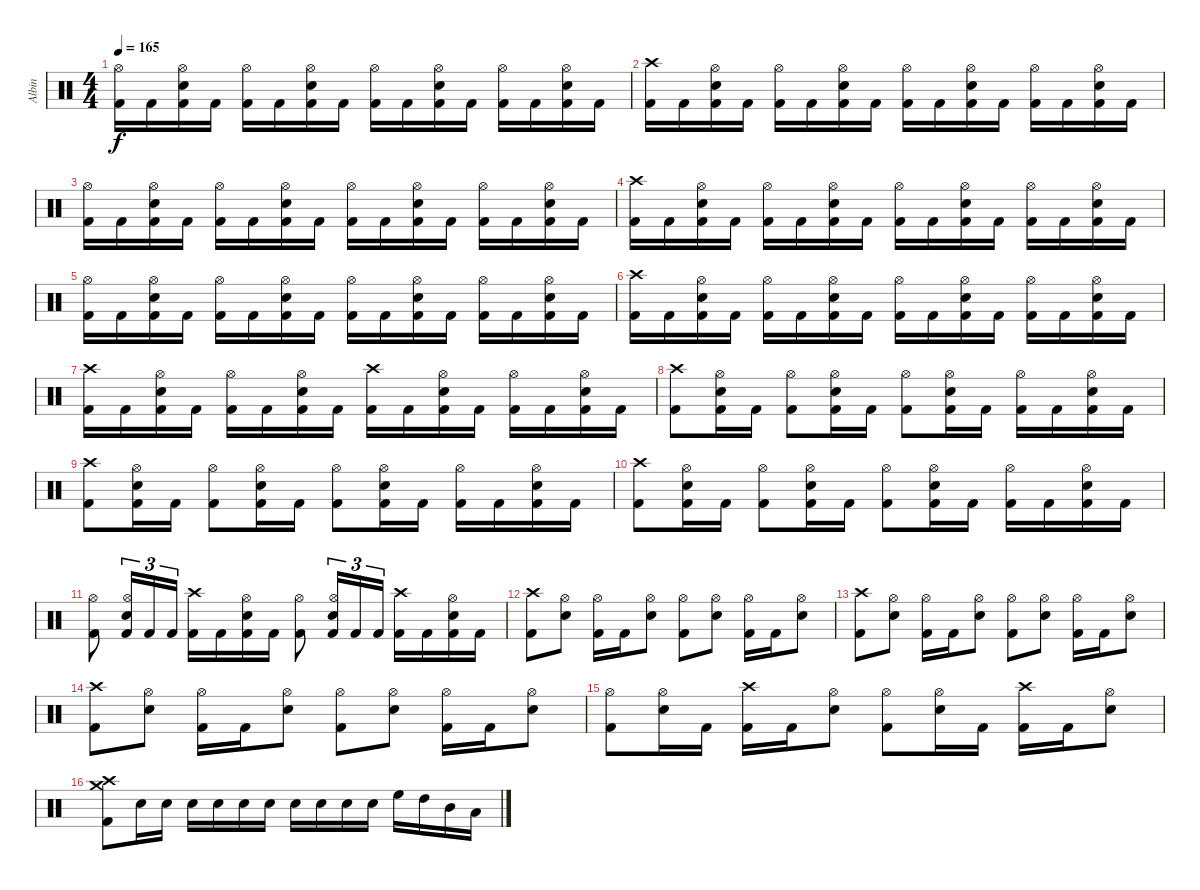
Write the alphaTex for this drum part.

\track ("Albin" "Albin") {instrument percussion}
\staff {score}
\articulation defaults
\ts (4 4)
\tempo 165
\clef neutral
\ks c
("Kick (hit) 2" "Hi-Hat (open)").16{dy f} "Kick (hit) 2".16 ("Kick (hit) 2" "Electric Snare (hit)" "Hi-Hat (open)").16 "Kick (hit) 2".16 ("Kick (hit) 2" "Hi-Hat (open)").16 "Kick (hit) 2".16 ("Kick (hit) 2" "Electric Snare (hit)" "Hi-Hat (open)").16 "Kick (hit) 2".16 ("Kick (hit) 2" "Hi-Hat (open)").16 "Kick (hit) 2".16 ("Kick (hit) 2" "Electric Snare (hit)" "Hi-Hat (open)").16 "Kick (hit) 2".16 ("Kick (hit) 2" "Hi-Hat (open)").16 "Kick (hit) 2".16 ("Kick (hit) 2" "Electric Snare (hit)" "Hi-Hat (open)").16 "Kick (hit) 2".16 |
("Kick (hit) 2" "Crash high (hit)").16 "Kick (hit) 2".16 ("Kick (hit) 2" "Electric Snare (hit)" "Hi-Hat (open)").16 "Kick (hit) 2".16 ("Kick (hit) 2" "Hi-Hat (open)").16 "Kick (hit) 2".16 ("Kick (hit) 2" "Electric Snare (hit)" "Hi-Hat (open)").16 "Kick (hit) 2".16 ("Kick (hit) 2" "Hi-Hat (open)").16 "Kick (hit) 2".16 ("Kick (hit) 2" "Electric Snare (hit)" "Hi-Hat (open)").16 "Kick (hit) 2".16 ("Kick (hit) 2" "Hi-Hat (open)").16 "Kick (hit) 2".16 ("Kick (hit) 2" "Electric Snare (hit)" "Hi-Hat (open)").16 "Kick (hit) 2".16 |
("Kick (hit) 2" "Hi-Hat (open)").16 "Kick (hit) 2".16 ("Kick (hit) 2" "Electric Snare (hit)" "Hi-Hat (open)").16 "Kick (hit) 2".16 ("Kick (hit) 2" "Hi-Hat (open)").16 "Kick (hit) 2".16 ("Kick (hit) 2" "Electric Snare (hit)" "Hi-Hat (open)").16 "Kick (hit) 2".16 ("Kick (hit) 2" "Hi-Hat (open)").16 "Kick (hit) 2".16 ("Kick (hit) 2" "Electric Snare (hit)" "Hi-Hat (open)").16 "Kick (hit) 2".16 ("Kick (hit) 2" "Hi-Hat (open)").16 "Kick (hit) 2".16 ("Kick (hit) 2" "Electric Snare (hit)" "Hi-Hat (open)").16 "Kick (hit) 2".16 |
("Kick (hit) 2" "Crash high (hit)").16 "Kick (hit) 2".16 ("Kick (hit) 2" "Electric Snare (hit)" "Hi-Hat (open)").16 "Kick (hit) 2".16 ("Kick (hit) 2" "Hi-Hat (open)").16 "Kick (hit) 2".16 ("Kick (hit) 2" "Electric Snare (hit)" "Hi-Hat (open)").16 "Kick (hit) 2".16 ("Kick (hit) 2" "Hi-Hat (open)").16 "Kick (hit) 2".16 ("Kick (hit) 2" "Electric Snare (hit)" "Hi-Hat (open)").16 "Kick (hit) 2".16 ("Kick (hit) 2" "Hi-Hat (open)").16 "Kick (hit) 2".16 ("Kick (hit) 2" "Electric Snare (hit)" "Hi-Hat (open)").16 "Kick (hit) 2".16 |
("Kick (hit) 2" "Hi-Hat (open)").16 "Kick (hit) 2".16 ("Kick (hit) 2" "Electric Snare (hit)" "Hi-Hat (open)").16 "Kick (hit) 2".16 ("Kick (hit) 2" "Hi-Hat (open)").16 "Kick (hit) 2".16 ("Kick (hit) 2" "Electric Snare (hit)" "Hi-Hat (open)").16 "Kick (hit) 2".16 ("Kick (hit) 2" "Hi-Hat (open)").16 "Kick (hit) 2".16 ("Kick (hit) 2" "Electric Snare (hit)" "Hi-Hat (open)").16 "Kick (hit) 2".16 ("Kick (hit) 2" "Hi-Hat (open)").16 "Kick (hit) 2".16 ("Kick (hit) 2" "Electric Snare (hit)" "Hi-Hat (open)").16 "Kick (hit) 2".16 |
("Kick (hit) 2" "Crash high (hit)").16 "Kick (hit) 2".16 ("Kick (hit) 2" "Electric Snare (hit)" "Hi-Hat (open)").16 "Kick (hit) 2".16 ("Kick (hit) 2" "Hi-Hat (open)").16 "Kick (hit) 2".16 ("Kick (hit) 2" "Electric Snare (hit)" "Hi-Hat (open)").16 "Kick (hit) 2".16 ("Kick (hit) 2" "Hi-Hat (open)").16 "Kick (hit) 2".16 ("Kick (hit) 2" "Electric Snare (hit)" "Hi-Hat (open)").16 "Kick (hit) 2".16 ("Kick (hit) 2" "Hi-Hat (open)").16 "Kick (hit) 2".16 ("Kick (hit) 2" "Electric Snare (hit)" "Hi-Hat (open)").16 "Kick (hit) 2".16 |
("Kick (hit) 2" "Crash high (hit)").16 "Kick (hit) 2".16 ("Kick (hit) 2" "Electric Snare (hit)" "Hi-Hat (open)").16 "Kick (hit) 2".16 ("Kick (hit) 2" "Hi-Hat (open)").16 "Kick (hit) 2".16 ("Kick (hit) 2" "Electric Snare (hit)" "Hi-Hat (open)").16 "Kick (hit) 2".16 ("Kick (hit) 2" "Crash high (hit)").16 "Kick (hit) 2".16 ("Kick (hit) 2" "Electric Snare (hit)" "Hi-Hat (open)").16 "Kick (hit) 2".16 ("Kick (hit) 2" "Hi-Hat (open)").16 "Kick (hit) 2".16 ("Kick (hit) 2" "Electric Snare (hit)" "Hi-Hat (open)").16 "Kick (hit) 2".16 |
("Kick (hit) 2" "Crash high (hit)").8 ("Kick (hit) 2" "Electric Snare (hit)" "Hi-Hat (open)").16 "Kick (hit) 2".16 ("Kick (hit) 2" "Hi-Hat (open)").8 ("Kick (hit) 2" "Electric Snare (hit)" "Hi-Hat (open)").16 "Kick (hit) 2".16 ("Kick (hit) 2" "Hi-Hat (open)").8 ("Kick (hit) 2" "Electric Snare (hit)" "Hi-Hat (open)").16 "Kick (hit) 2".16 ("Kick (hit) 2" "Hi-Hat (open)").16 "Kick (hit) 2".16 ("Kick (hit) 2" "Electric Snare (hit)" "Hi-Hat (open)").16 "Kick (hit) 2".16 |
("Kick (hit) 2" "Crash high (hit)").8 ("Kick (hit) 2" "Electric Snare (hit)" "Hi-Hat (open)").16 "Kick (hit) 2".16 ("Kick (hit) 2" "Hi-Hat (open)").8 ("Kick (hit) 2" "Electric Snare (hit)" "Hi-Hat (open)").16 "Kick (hit) 2".16 ("Kick (hit) 2" "Hi-Hat (open)").8 ("Kick (hit) 2" "Electric Snare (hit)" "Hi-Hat (open)").16 "Kick (hit) 2".16 ("Kick (hit) 2" "Hi-Hat (open)").16 "Kick (hit) 2".16 ("Kick (hit) 2" "Electric Snare (hit)" "Hi-Hat (open)").16 "Kick (hit) 2".16 |
("Kick (hit) 2" "Crash high (hit)").8 ("Kick (hit) 2" "Electric Snare (hit)" "Hi-Hat (open)").16 "Kick (hit) 2".16 ("Kick (hit) 2" "Hi-Hat (open)").8 ("Kick (hit) 2" "Electric Snare (hit)" "Hi-Hat (open)").16 "Kick (hit) 2".16 ("Kick (hit) 2" "Hi-Hat (open)").8 ("Kick (hit) 2" "Electric Snare (hit)" "Hi-Hat (open)").16 "Kick (hit) 2".16 ("Kick (hit) 2" "Hi-Hat (open)").16 "Kick (hit) 2".16 ("Kick (hit) 2" "Electric Snare (hit)" "Hi-Hat (open)").16 "Kick (hit) 2".16 |
("Kick (hit) 2" "Hi-Hat (open)").8 ("Kick (hit) 2" "Electric Snare (hit)" "Hi-Hat (open)").16{tu (3 2)} "Kick (hit) 2".16{tu (3 2)} "Kick (hit) 2".16{tu (3 2)} ("Kick (hit) 2" "Crash high (hit)").16 "Kick (hit) 2".16 ("Kick (hit) 2" "Electric Snare (hit)" "Hi-Hat (open)").16 "Kick (hit) 2".16 ("Kick (hit) 2" "Hi-Hat (open)").8 ("Kick (hit) 2" "Electric Snare (hit)" "Hi-Hat (open)").16{tu (3 2)} "Kick (hit) 2".16{tu (3 2)} "Kick (hit) 2".16{tu (3 2)} ("Kick (hit) 2" "Crash high (hit)").16 "Kick (hit) 2".16 ("Kick (hit) 2" "Electric Snare (hit)" "Hi-Hat (open)").16 "Kick (hit) 2".16 |
("Kick (hit) 2" "Crash high (hit)").8 ("Electric Snare (hit)" "Hi-Hat (open)").8 ("Kick (hit) 2" "Hi-Hat (open)").16 "Kick (hit) 2".16 ("Electric Snare (hit)" "Hi-Hat (open)").8 ("Kick (hit) 2" "Hi-Hat (open)").8 ("Electric Snare (hit)" "Hi-Hat (open)").8 ("Kick (hit) 2" "Hi-Hat (open)").16 "Kick (hit) 2".16 ("Electric Snare (hit)" "Hi-Hat (open)").8 |
("Kick (hit) 2" "Crash high (hit)").8 ("Electric Snare (hit)" "Hi-Hat (open)").8 ("Kick (hit) 2" "Hi-Hat (open)").16 "Kick (hit) 2".16 ("Electric Snare (hit)" "Hi-Hat (open)").8 ("Kick (hit) 2" "Hi-Hat (open)").8 ("Electric Snare (hit)" "Hi-Hat (open)").8 ("Kick (hit) 2" "Hi-Hat (open)").16 "Kick (hit) 2".16 ("Electric Snare (hit)" "Hi-Hat (open)").8 |
("Kick (hit) 2" "Crash high (hit)").8 ("Electric Snare (hit)" "Hi-Hat (open)").8 ("Kick (hit) 2" "Hi-Hat (open)").16 "Kick (hit) 2".16 ("Electric Snare (hit)" "Hi-Hat (open)").8 ("Kick (hit) 2" "Hi-Hat (open)").8 ("Electric Snare (hit)" "Hi-Hat (open)").8 ("Kick (hit) 2" "Hi-Hat (open)").16 "Kick (hit) 2".16 ("Electric Snare (hit)" "Hi-Hat (open)").8 |
("Kick (hit) 2" "Hi-Hat (open)").8 ("Electric Snare (hit)" "Hi-Hat (open)").16 "Kick (hit) 2".16 ("Kick (hit) 2" "Crash high (hit)").16 "Kick (hit) 2".16 ("Electric Snare (hit)" "Hi-Hat (open)").8 ("Kick (hit) 2" "Hi-Hat (open)").8 ("Electric Snare (hit)" "Hi-Hat (open)").16 "Kick (hit) 2".16 ("Kick (hit) 2" "Crash high (hit)").16 "Kick (hit) 2".16 ("Electric Snare (hit)" "Hi-Hat (open)").8 |
("Kick (hit) 2" "Crash high (hit)" "Crash medium (hit)").8 "Electric Snare (hit)".16 "Electric Snare (hit)".16 "Electric Snare (hit)".16 "Electric Snare (hit)".16 "Electric Snare (hit)".16 "Electric Snare (hit)".16 "Electric Snare (hit)".16 "Electric Snare (hit)".16 "Electric Snare (hit)".16 "Electric Snare (hit)".16 "High Floor Tom (hit)".16 "High Tom (hit)".16 "Mid Tom (hit)".16 "Low Tom (hit)".16
